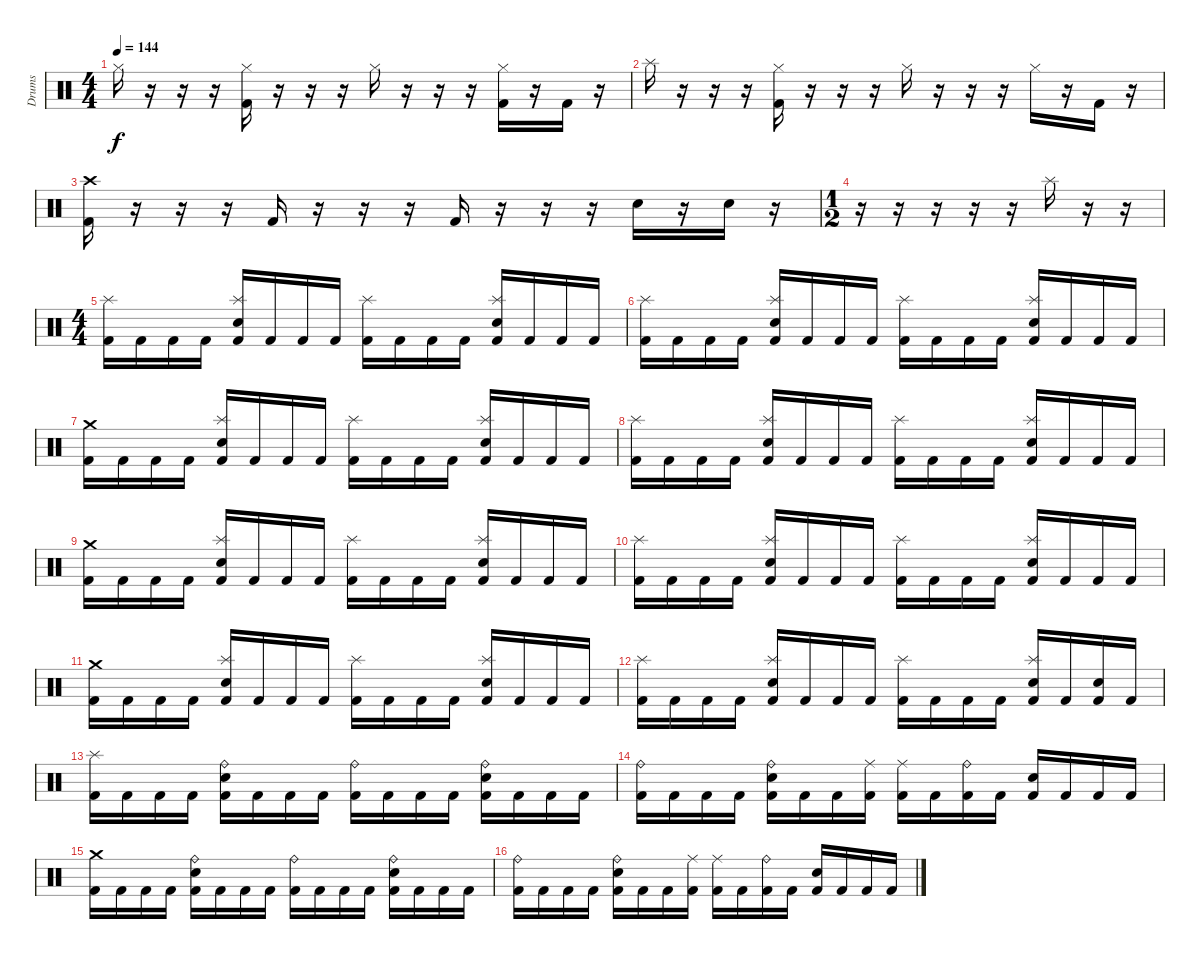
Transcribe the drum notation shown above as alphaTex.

\track ("Drums" "Drums") {instrument percussion}
\staff {score}
\articulation defaults
\ts (4 4)
\tempo 144
\clef neutral
\ks c "Hi-Hat (closed)".16{dy f}
r.16 r.16 r.16 ("Hi-Hat (closed)" "Kick (hit) 2").16 r.16 r.16 r.16 "Hi-Hat (closed)".16 r.16 r.16 r.16 ("Hi-Hat (closed)" "Kick (hit) 2").16 r.16 "Kick (hit) 2".16 r.16 |
"Splash (hit)".16 r.16 r.16 r.16 ("Hi-Hat (closed)" "Kick (hit) 2").16 r.16 r.16 r.16 "Hi-Hat (closed)".16 r.16 r.16 r.16 "Hi-Hat (closed)".16 r.16 "Kick (hit) 2".16 r.16 |
("Crash high (hit)" "Kick (hit) 2").16 r.16 r.16 r.16 "Kick (hit) 2".16 r.16 r.16 r.16 "Kick (hit) 2".16 r.16 r.16 r.16 "Snare (hit) 2".16 r.16 "Snare (hit) 2".16 r.16 |
\ts (1 2)
r.16 r.16 r.16 r.16 r.16 "Splash (hit)".16 r.16 r.16 |
\ts (4 4)
("Splash (hit)" "Kick (hit) 2").16 "Kick (hit) 2".16 "Kick (hit) 2".16 "Kick (hit) 2".16 ("Splash (hit)" "Snare (hit) 2" "Kick (hit) 2").16 "Kick (hit) 2".16 "Kick (hit) 2".16 "Kick (hit) 2".16 ("Splash (hit)" "Kick (hit) 2").16 "Kick (hit) 2".16 "Kick (hit) 2".16 "Kick (hit) 2".16 ("Splash (hit)" "Snare (hit) 2" "Kick (hit) 2").16 "Kick (hit) 2".16 "Kick (hit) 2".16 "Kick (hit) 2".16 |
("Splash (hit)" "Kick (hit) 2").16 "Kick (hit) 2".16 "Kick (hit) 2".16 "Kick (hit) 2".16 ("Splash (hit)" "Snare (hit) 2" "Kick (hit) 2").16 "Kick (hit) 2".16 "Kick (hit) 2".16 "Kick (hit) 2".16 ("Splash (hit)" "Kick (hit) 2").16 "Kick (hit) 2".16 "Kick (hit) 2".16 "Kick (hit) 2".16 ("Splash (hit)" "Snare (hit) 2" "Kick (hit) 2").16 "Kick (hit) 2".16 "Kick (hit) 2".16 "Kick (hit) 2".16 |
("Crash medium (hit)" "Kick (hit) 2").16 "Kick (hit) 2".16 "Kick (hit) 2".16 "Kick (hit) 2".16 ("Splash (hit)" "Snare (hit) 2" "Kick (hit) 2").16 "Kick (hit) 2".16 "Kick (hit) 2".16 "Kick (hit) 2".16 ("Splash (hit)" "Kick (hit) 2").16 "Kick (hit) 2".16 "Kick (hit) 2".16 "Kick (hit) 2".16 ("Splash (hit)" "Snare (hit) 2" "Kick (hit) 2").16 "Kick (hit) 2".16 "Kick (hit) 2".16 "Kick (hit) 2".16 |
("Splash (hit)" "Kick (hit) 2").16 "Kick (hit) 2".16 "Kick (hit) 2".16 "Kick (hit) 2".16 ("Splash (hit)" "Snare (hit) 2" "Kick (hit) 2").16 "Kick (hit) 2".16 "Kick (hit) 2".16 "Kick (hit) 2".16 ("Splash (hit)" "Kick (hit) 2").16 "Kick (hit) 2".16 "Kick (hit) 2".16 "Kick (hit) 2".16 ("Splash (hit)" "Snare (hit) 2" "Kick (hit) 2").16 "Kick (hit) 2".16 "Kick (hit) 2".16 "Kick (hit) 2".16 |
("Crash medium (hit)" "Kick (hit) 2").16 "Kick (hit) 2".16 "Kick (hit) 2".16 "Kick (hit) 2".16 ("Splash (hit)" "Snare (hit) 2" "Kick (hit) 2").16 "Kick (hit) 2".16 "Kick (hit) 2".16 "Kick (hit) 2".16 ("Splash (hit)" "Kick (hit) 2").16 "Kick (hit) 2".16 "Kick (hit) 2".16 "Kick (hit) 2".16 ("Splash (hit)" "Snare (hit) 2" "Kick (hit) 2").16 "Kick (hit) 2".16 "Kick (hit) 2".16 "Kick (hit) 2".16 |
("Splash (hit)" "Kick (hit) 2").16 "Kick (hit) 2".16 "Kick (hit) 2".16 "Kick (hit) 2".16 ("Splash (hit)" "Snare (hit) 2" "Kick (hit) 2").16 "Kick (hit) 2".16 "Kick (hit) 2".16 "Kick (hit) 2".16 ("Splash (hit)" "Kick (hit) 2").16 "Kick (hit) 2".16 "Kick (hit) 2".16 "Kick (hit) 2".16 ("Splash (hit)" "Snare (hit) 2" "Kick (hit) 2").16 "Kick (hit) 2".16 "Kick (hit) 2".16 "Kick (hit) 2".16 |
("Crash medium (hit)" "Kick (hit) 2").16 "Kick (hit) 2".16 "Kick (hit) 2".16 "Kick (hit) 2".16 ("Splash (hit)" "Snare (hit) 2" "Kick (hit) 2").16 "Kick (hit) 2".16 "Kick (hit) 2".16 "Kick (hit) 2".16 ("Splash (hit)" "Kick (hit) 2").16 "Kick (hit) 2".16 "Kick (hit) 2".16 "Kick (hit) 2".16 ("Splash (hit)" "Snare (hit) 2" "Kick (hit) 2").16 "Kick (hit) 2".16 "Kick (hit) 2".16 "Kick (hit) 2".16 |
("Splash (hit)" "Kick (hit) 2").16 "Kick (hit) 2".16 "Kick (hit) 2".16 "Kick (hit) 2".16 ("Splash (hit)" "Snare (hit) 2" "Kick (hit) 2").16 "Kick (hit) 2".16 "Kick (hit) 2".16 "Kick (hit) 2".16 ("Splash (hit)" "Kick (hit) 2").16 "Kick (hit) 2".16 "Kick (hit) 2".16 "Kick (hit) 2".16 ("Splash (hit)" "Snare (hit) 2" "Kick (hit) 2").16 "Kick (hit) 2".16 ("Snare (hit) 2" "Kick (hit) 2").16 "Kick (hit) 2".16 |
("Splash (hit)" "Kick (hit) 2").16 "Kick (hit) 2".16 "Kick (hit) 2".16 "Kick (hit) 2".16 ("Ride (bell)" "Snare (hit) 2" "Kick (hit) 2").16 "Kick (hit) 2".16 "Kick (hit) 2".16 "Kick (hit) 2".16 ("Ride (bell)" "Kick (hit) 2").16 "Kick (hit) 2".16 "Kick (hit) 2".16 "Kick (hit) 2".16 ("Ride (bell)" "Snare (hit) 2" "Kick (hit) 2").16 "Kick (hit) 2".16 "Kick (hit) 2".16 "Kick (hit) 2".16 |
("Ride (bell)" "Kick (hit) 2").16 "Kick (hit) 2".16 "Kick (hit) 2".16 "Kick (hit) 2".16 ("Ride (bell)" "Snare (hit) 2" "Kick (hit) 2").16 "Kick (hit) 2".16 "Kick (hit) 2".16 ("Ride (middle)" "Kick (hit) 2").16 ("Ride (middle)" "Kick (hit) 2").16 "Kick (hit) 2".16 ("Ride (bell)" "Kick (hit) 2").16 "Kick (hit) 2".16 ("Snare (hit) 2" "Kick (hit) 2").16 "Kick (hit) 2".16 "Kick (hit) 2".16 "Kick (hit) 2".16 |
("Crash medium (hit)" "Kick (hit) 2").16 "Kick (hit) 2".16 "Kick (hit) 2".16 "Kick (hit) 2".16 ("Ride (bell)" "Snare (hit) 2" "Kick (hit) 2").16 "Kick (hit) 2".16 "Kick (hit) 2".16 "Kick (hit) 2".16 ("Ride (bell)" "Kick (hit) 2").16 "Kick (hit) 2".16 "Kick (hit) 2".16 "Kick (hit) 2".16 ("Ride (bell)" "Snare (hit) 2" "Kick (hit) 2").16 "Kick (hit) 2".16 "Kick (hit) 2".16 "Kick (hit) 2".16 |
("Ride (bell)" "Kick (hit) 2").16 "Kick (hit) 2".16 "Kick (hit) 2".16 "Kick (hit) 2".16 ("Ride (bell)" "Snare (hit) 2" "Kick (hit) 2").16 "Kick (hit) 2".16 "Kick (hit) 2".16 ("Ride (middle)" "Kick (hit) 2").16 ("Ride (middle)" "Kick (hit) 2").16 "Kick (hit) 2".16 ("Ride (bell)" "Kick (hit) 2").16 "Kick (hit) 2".16 ("Snare (hit) 2" "Kick (hit) 2").16 "Kick (hit) 2".16 "Kick (hit) 2".16 "Kick (hit) 2".16
